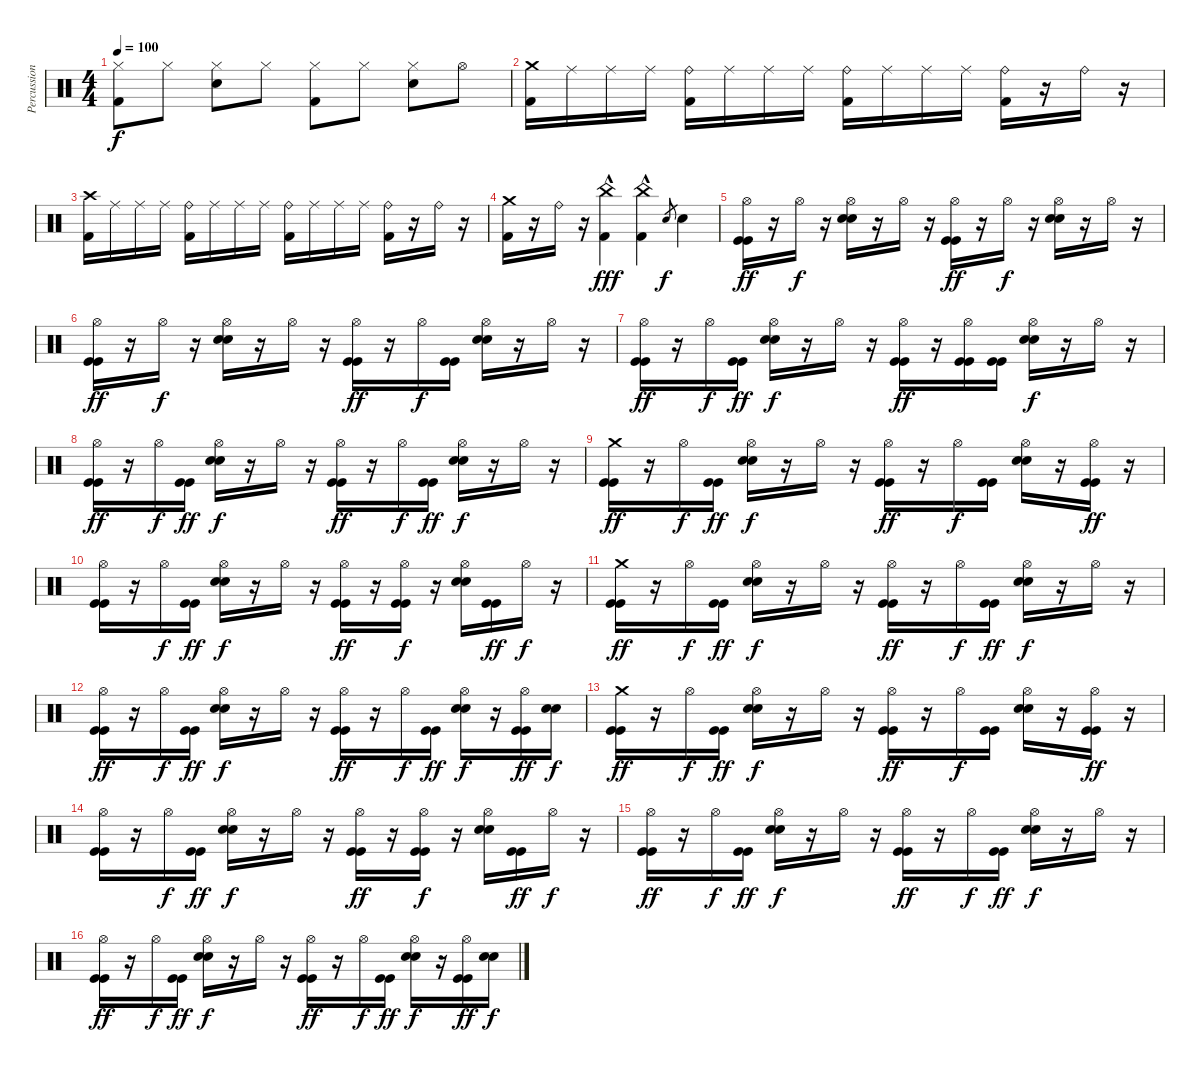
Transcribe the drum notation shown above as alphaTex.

\track ("Percussions" "Percussion") {instrument percussion}
\staff {score}
\articulation defaults
\ts (4 4)
\tempo 100
\clef neutral
\ks c
("Hi-Hat (closed)" "Kick (hit) 2").8{dy f} "Hi-Hat (closed)".8 ("Hi-Hat (closed)" "Electric Snare (hit)").8 "Hi-Hat (closed)".8 ("Hi-Hat (closed)" "Kick (hit) 2").8 "Hi-Hat (closed)".8 ("Hi-Hat (closed)" "Electric Snare (hit)").8 "Hi-Hat (open)".8 |
("Crash medium (hit)" "Kick (hit) 2").16 "Ride (middle)".16 "Ride (middle)".16 "Ride (middle)".16 ("Ride (bell)" "Kick (hit) 2").16 "Ride (middle)".16 "Ride (middle)".16 "Ride (middle)".16 ("Ride (bell)" "Kick (hit) 2").16 "Ride (middle)".16 "Ride (middle)".16 "Ride (middle)".16 ("Ride (bell)" "Kick (hit) 2").16 r.16 "Ride (bell)".16 r.16 |
("Crash high (hit)" "Kick (hit) 2").16 "Ride (middle)".16 "Ride (middle)".16 "Ride (middle)".16 ("Ride (bell)" "Kick (hit) 2").16 "Ride (middle)".16 "Ride (middle)".16 "Ride (middle)".16 ("Ride (bell)" "Kick (hit) 2").16 "Ride (middle)".16 "Ride (middle)".16 "Ride (middle)".16 ("Ride (bell)" "Kick (hit) 2").16 r.16 "Ride (bell)".16 r.16 |
("Crash medium (hit)" "Kick (hit) 2").16 r.16 "Ride (bell)".16 r.16 ("China (hit)"{hac} "Kick (hit) 2").4{dy fff} ("China (hit)"{hac} "Kick (hit) 2").4 "Electric Snare (hit)".8{gr dy f} "Electric Snare (hit)".4 |
("Hi-Hat (open)" "Kick (hit)" "Kick (hit)").16{dy ff volume 16} r.16 "Hi-Hat (open)".16{dy f} r.16 ("Hi-Hat (open)" "Electric Snare (hit)" "Electric Snare (hit)").16 r.16 "Hi-Hat (open)".16 r.16 ("Hi-Hat (open)" "Kick (hit)" "Kick (hit)").16{dy ff} r.16 "Hi-Hat (open)".16{dy f} r.16 ("Hi-Hat (open)" "Electric Snare (hit)" "Electric Snare (hit)").16 r.16 "Hi-Hat (open)".16 r.16 |
("Hi-Hat (open)" "Kick (hit)" "Kick (hit)").16{dy ff} r.16 "Hi-Hat (open)".16{dy f} r.16 ("Hi-Hat (open)" "Electric Snare (hit)" "Electric Snare (hit)").16 r.16 "Hi-Hat (open)".16 r.16 ("Hi-Hat (open)" "Kick (hit)" "Kick (hit)").16{dy ff} r.16 "Hi-Hat (open)".16{dy f} ("Kick (hit)" "Kick (hit)").16 ("Hi-Hat (open)" "Electric Snare (hit)" "Electric Snare (hit)").16 r.16 "Hi-Hat (open)".16 r.16 |
("Hi-Hat (open)" "Kick (hit)" "Kick (hit)").16{dy ff} r.16 "Hi-Hat (open)".16{dy f} ("Kick (hit)" "Kick (hit)").16{dy ff} ("Hi-Hat (open)" "Electric Snare (hit)" "Electric Snare (hit)").16{dy f} r.16 "Hi-Hat (open)".16 r.16 ("Hi-Hat (open)" "Kick (hit)" "Kick (hit)").16{dy ff} r.16 ("Hi-Hat (open)" "Kick (hit)" "Kick (hit)").16 ("Kick (hit)" "Kick (hit)").16 ("Hi-Hat (open)" "Electric Snare (hit)" "Electric Snare (hit)").16{dy f} r.16 "Hi-Hat (open)".16 r.16 |
("Hi-Hat (open)" "Kick (hit)" "Kick (hit)").16{dy ff} r.16 "Hi-Hat (open)".16{dy f} ("Kick (hit)" "Kick (hit)").16{dy ff} ("Hi-Hat (open)" "Electric Snare (hit)" "Electric Snare (hit)").16{dy f} r.16 "Hi-Hat (open)".16 r.16 ("Hi-Hat (open)" "Kick (hit)" "Kick (hit)").16{dy ff} r.16 "Hi-Hat (open)".16{dy f} ("Kick (hit)" "Kick (hit)").16{dy ff} ("Hi-Hat (open)" "Electric Snare (hit)" "Electric Snare (hit)").16{dy f} r.16 "Hi-Hat (open)".16 r.16 |
("Crash medium (hit)" "Kick (hit)" "Kick (hit)").16{dy ff} r.16 "Hi-Hat (open)".16{dy f} ("Kick (hit)" "Kick (hit)").16{dy ff} ("Hi-Hat (open)" "Electric Snare (hit)" "Electric Snare (hit)").16{dy f} r.16 "Hi-Hat (open)".16 r.16 ("Hi-Hat (open)" "Kick (hit)" "Kick (hit)").16{dy ff} r.16 "Hi-Hat (open)".16{dy f} ("Kick (hit)" "Kick (hit)").16 ("Hi-Hat (open)" "Electric Snare (hit)" "Electric Snare (hit)").16 r.16 ("Hi-Hat (open)" "Kick (hit)" "Kick (hit)").16{dy ff} r.16 |
("Hi-Hat (open)" "Kick (hit)" "Kick (hit)").16 r.16 "Hi-Hat (open)".16{dy f} ("Kick (hit)" "Kick (hit)").16{dy ff} ("Hi-Hat (open)" "Electric Snare (hit)" "Electric Snare (hit)").16{dy f} r.16 "Hi-Hat (open)".16 r.16 ("Hi-Hat (open)" "Kick (hit)" "Kick (hit)").16{dy ff} r.16 ("Hi-Hat (open)" "Kick (hit)" "Kick (hit)").16{dy f} r.16 ("Hi-Hat (open)" "Electric Snare (hit)" "Electric Snare (hit)").16 ("Kick (hit)" "Kick (hit)").16{dy ff} "Hi-Hat (open)".16{dy f} r.16 |
("Crash medium (hit)" "Kick (hit)" "Kick (hit)").16{dy ff} r.16 "Hi-Hat (open)".16{dy f} ("Kick (hit)" "Kick (hit)").16{dy ff} ("Hi-Hat (open)" "Electric Snare (hit)" "Electric Snare (hit)").16{dy f} r.16 "Hi-Hat (open)".16 r.16 ("Hi-Hat (open)" "Kick (hit)" "Kick (hit)").16{dy ff} r.16 "Hi-Hat (open)".16{dy f} ("Kick (hit)" "Kick (hit)").16{dy ff} ("Hi-Hat (open)" "Electric Snare (hit)" "Electric Snare (hit)").16{dy f} r.16 "Hi-Hat (open)".16 r.16 |
("Hi-Hat (open)" "Kick (hit)" "Kick (hit)").16{dy ff} r.16 "Hi-Hat (open)".16{dy f} ("Kick (hit)" "Kick (hit)").16{dy ff} ("Hi-Hat (open)" "Electric Snare (hit)" "Electric Snare (hit)").16{dy f} r.16 "Hi-Hat (open)".16 r.16 ("Hi-Hat (open)" "Kick (hit)" "Kick (hit)").16{dy ff} r.16 "Hi-Hat (open)".16{dy f} ("Kick (hit)" "Kick (hit)").16{dy ff} ("Hi-Hat (open)" "Electric Snare (hit)" "Electric Snare (hit)").16{dy f} r.16 ("Hi-Hat (open)" "Kick (hit)" "Kick (hit)").16{dy ff} ("Electric Snare (hit)" "Electric Snare (hit)").16{dy f} |
("Crash medium (hit)" "Kick (hit)" "Kick (hit)").16{dy ff} r.16 "Hi-Hat (open)".16{dy f} ("Kick (hit)" "Kick (hit)").16{dy ff} ("Hi-Hat (open)" "Electric Snare (hit)" "Electric Snare (hit)").16{dy f} r.16 "Hi-Hat (open)".16 r.16 ("Hi-Hat (open)" "Kick (hit)" "Kick (hit)").16{dy ff} r.16 "Hi-Hat (open)".16{dy f} ("Kick (hit)" "Kick (hit)").16 ("Hi-Hat (open)" "Electric Snare (hit)" "Electric Snare (hit)").16 r.16 ("Hi-Hat (open)" "Kick (hit)" "Kick (hit)").16{dy ff} r.16 |
("Hi-Hat (open)" "Kick (hit)" "Kick (hit)").16 r.16 "Hi-Hat (open)".16{dy f} ("Kick (hit)" "Kick (hit)").16{dy ff} ("Hi-Hat (open)" "Electric Snare (hit)" "Electric Snare (hit)").16{dy f} r.16 "Hi-Hat (open)".16 r.16 ("Hi-Hat (open)" "Kick (hit)" "Kick (hit)").16{dy ff} r.16 ("Hi-Hat (open)" "Kick (hit)" "Kick (hit)").16{dy f} r.16 ("Hi-Hat (open)" "Electric Snare (hit)" "Electric Snare (hit)").16 ("Kick (hit)" "Kick (hit)").16{dy ff} "Hi-Hat (open)".16{dy f} r.16 |
("Hi-Hat (open)" "Kick (hit)" "Kick (hit)").16{dy ff} r.16 "Hi-Hat (open)".16{dy f} ("Kick (hit)" "Kick (hit)").16{dy ff} ("Hi-Hat (open)" "Electric Snare (hit)" "Electric Snare (hit)").16{dy f} r.16 "Hi-Hat (open)".16 r.16 ("Hi-Hat (open)" "Kick (hit)" "Kick (hit)").16{dy ff} r.16 "Hi-Hat (open)".16{dy f} ("Kick (hit)" "Kick (hit)").16{dy ff} ("Hi-Hat (open)" "Electric Snare (hit)" "Electric Snare (hit)").16{dy f} r.16 "Hi-Hat (open)".16 r.16 |
("Hi-Hat (open)" "Kick (hit)" "Kick (hit)").16{dy ff} r.16 "Hi-Hat (open)".16{dy f} ("Kick (hit)" "Kick (hit)").16{dy ff} ("Hi-Hat (open)" "Electric Snare (hit)" "Electric Snare (hit)").16{dy f} r.16 "Hi-Hat (open)".16 r.16 ("Hi-Hat (open)" "Kick (hit)" "Kick (hit)").16{dy ff} r.16 "Hi-Hat (open)".16{dy f} ("Kick (hit)" "Kick (hit)").16{dy ff} ("Hi-Hat (open)" "Electric Snare (hit)" "Electric Snare (hit)").16{dy f} r.16 ("Hi-Hat (open)" "Kick (hit)" "Kick (hit)").16{dy ff} ("Electric Snare (hit)" "Electric Snare (hit)").16{dy f}
